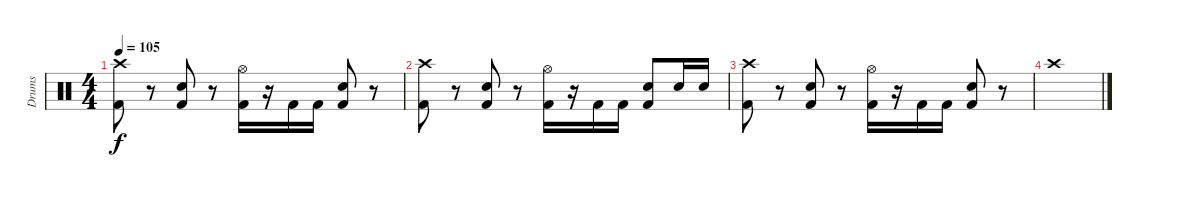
\track ("Drums" "Drums") {instrument percussion}
\staff {score}
\articulation defaults
\ts (4 4)
\tempo 105
\clef neutral
\ks c
("Crash high (hit)" "Kick (hit) 2").8{dy f} r.8 ("Snare (hit) 2" "Kick (hit) 2").8 r.8 ("Hi-Hat (open)" "Kick (hit) 2").16 r.16 "Kick (hit) 2".16 "Kick (hit) 2".16 ("Snare (hit) 2" "Kick (hit) 2").8 r.8 |
("Crash high (hit)" "Kick (hit) 2").8 r.8 ("Snare (hit) 2" "Kick (hit) 2").8 r.8 ("Hi-Hat (open)" "Kick (hit) 2").16 r.16 "Kick (hit) 2".16 "Kick (hit) 2".16 ("Snare (hit) 2" "Kick (hit) 2").8 "Snare (hit) 2".16 "Snare (hit) 2".16 |
("Crash high (hit)" "Kick (hit) 2").8 r.8 ("Snare (hit) 2" "Kick (hit) 2").8 r.8 ("Hi-Hat (open)" "Kick (hit) 2").16 r.16 "Kick (hit) 2".16 "Kick (hit) 2".16 ("Snare (hit) 2" "Kick (hit) 2").8 r.8 |
"Crash high (hit)".1
